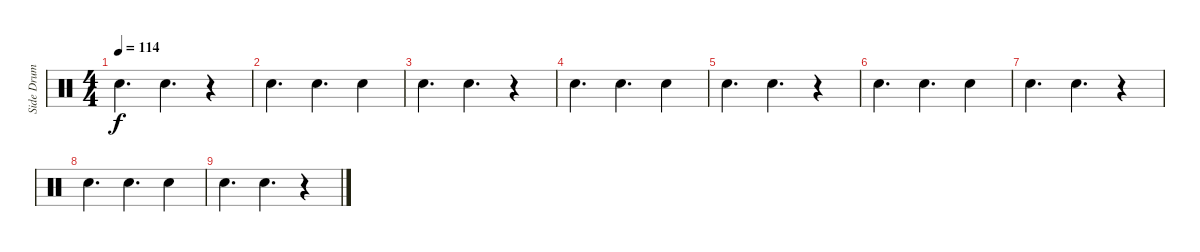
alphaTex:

\track ("Side Drum" "Side Drum") {instrument percussion}
\staff {score}
\articulation defaults
\ts (4 4)
\tempo 114
\clef neutral
\ks c "Snare (hit) 2".4{d dy f} "Snare (hit) 2".4{d}
r.4 |
"Snare (hit) 2".4{d} "Snare (hit) 2".4{d} "Snare (hit) 2".4 |
"Snare (hit) 2".4{d} "Snare (hit) 2".4{d} r.4 |
"Snare (hit) 2".4{d} "Snare (hit) 2".4{d} "Snare (hit) 2".4 |
"Snare (hit) 2".4{d} "Snare (hit) 2".4{d} r.4 |
"Snare (hit) 2".4{d} "Snare (hit) 2".4{d} "Snare (hit) 2".4 |
"Snare (hit) 2".4{d} "Snare (hit) 2".4{d} r.4 |
"Snare (hit) 2".4{d} "Snare (hit) 2".4{d} "Snare (hit) 2".4 |
"Snare (hit) 2".4{d} "Snare (hit) 2".4{d} r.4
